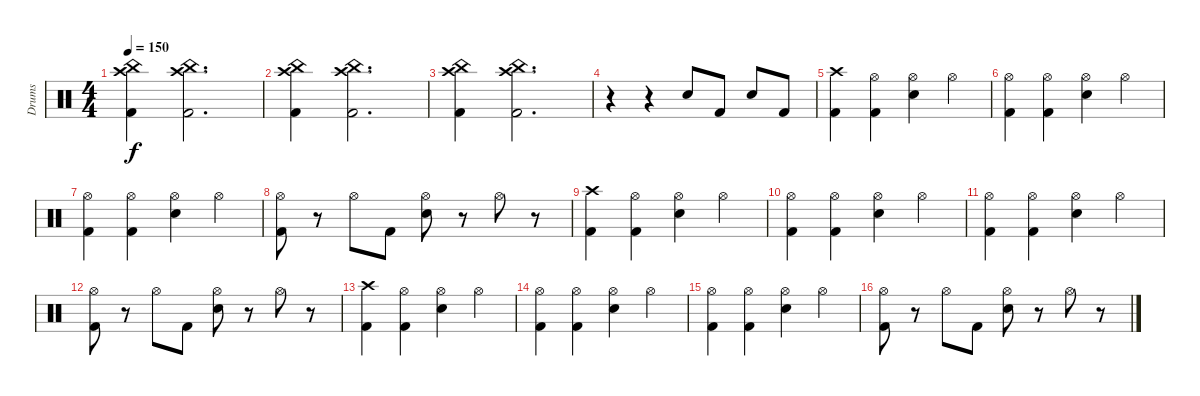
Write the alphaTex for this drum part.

\track ("Drums" "Drums") {instrument percussion}
\staff {score}
\articulation defaults
\ts (4 4)
\tempo 150
\clef neutral
\ks c
("Crash high (hit)" "China (hit)" "Kick (hit) 2").4{dy f} ("Crash high (hit)" "China (hit)" "Kick (hit) 2").2{d} |
("Crash high (hit)" "China (hit)" "Kick (hit) 2").4 ("Crash high (hit)" "China (hit)" "Kick (hit) 2").2{d} |
("Crash high (hit)" "China (hit)" "Kick (hit) 2").4 ("Crash high (hit)" "China (hit)" "Kick (hit) 2").2{d} |
r.4 r.4 "Electric Snare (hit)".8 "Kick (hit) 2".8 "Electric Snare (hit)".8 "Kick (hit) 2".8 |
("Crash high (hit)" "Kick (hit) 2").4 ("Hi-Hat (open)" "Kick (hit) 2").4 ("Hi-Hat (open)" "Electric Snare (hit)").4 "Hi-Hat (open)".4 |
("Hi-Hat (open)" "Kick (hit) 2").4 ("Hi-Hat (open)" "Kick (hit) 2").4 ("Hi-Hat (open)" "Electric Snare (hit)").4 "Hi-Hat (open)".4 |
("Hi-Hat (open)" "Kick (hit) 2").4 ("Hi-Hat (open)" "Kick (hit) 2").4 ("Hi-Hat (open)" "Electric Snare (hit)").4 "Hi-Hat (open)".4 |
("Hi-Hat (open)" "Kick (hit) 2").8 r.8 "Hi-Hat (open)".8 "Kick (hit) 2".8 ("Hi-Hat (open)" "Electric Snare (hit)").8 r.8 "Hi-Hat (open)".8 r.8 |
("Crash high (hit)" "Kick (hit) 2").4 ("Hi-Hat (open)" "Kick (hit) 2").4 ("Hi-Hat (open)" "Electric Snare (hit)").4 "Hi-Hat (open)".4 |
("Hi-Hat (open)" "Kick (hit) 2").4 ("Hi-Hat (open)" "Kick (hit) 2").4 ("Hi-Hat (open)" "Electric Snare (hit)").4 "Hi-Hat (open)".4 |
("Hi-Hat (open)" "Kick (hit) 2").4 ("Hi-Hat (open)" "Kick (hit) 2").4 ("Hi-Hat (open)" "Electric Snare (hit)").4 "Hi-Hat (open)".4 |
("Hi-Hat (open)" "Kick (hit) 2").8 r.8 "Hi-Hat (open)".8 "Kick (hit) 2".8 ("Hi-Hat (open)" "Electric Snare (hit)").8 r.8 "Hi-Hat (open)".8 r.8 |
("Crash high (hit)" "Kick (hit) 2").4 ("Hi-Hat (open)" "Kick (hit) 2").4 ("Hi-Hat (open)" "Electric Snare (hit)").4 "Hi-Hat (open)".4 |
("Hi-Hat (open)" "Kick (hit) 2").4 ("Hi-Hat (open)" "Kick (hit) 2").4 ("Hi-Hat (open)" "Electric Snare (hit)").4 "Hi-Hat (open)".4 |
("Hi-Hat (open)" "Kick (hit) 2").4 ("Hi-Hat (open)" "Kick (hit) 2").4 ("Hi-Hat (open)" "Electric Snare (hit)").4 "Hi-Hat (open)".4 |
("Hi-Hat (open)" "Kick (hit) 2").8 r.8 "Hi-Hat (open)".8 "Kick (hit) 2".8 ("Hi-Hat (open)" "Electric Snare (hit)").8 r.8 "Hi-Hat (open)".8 r.8
